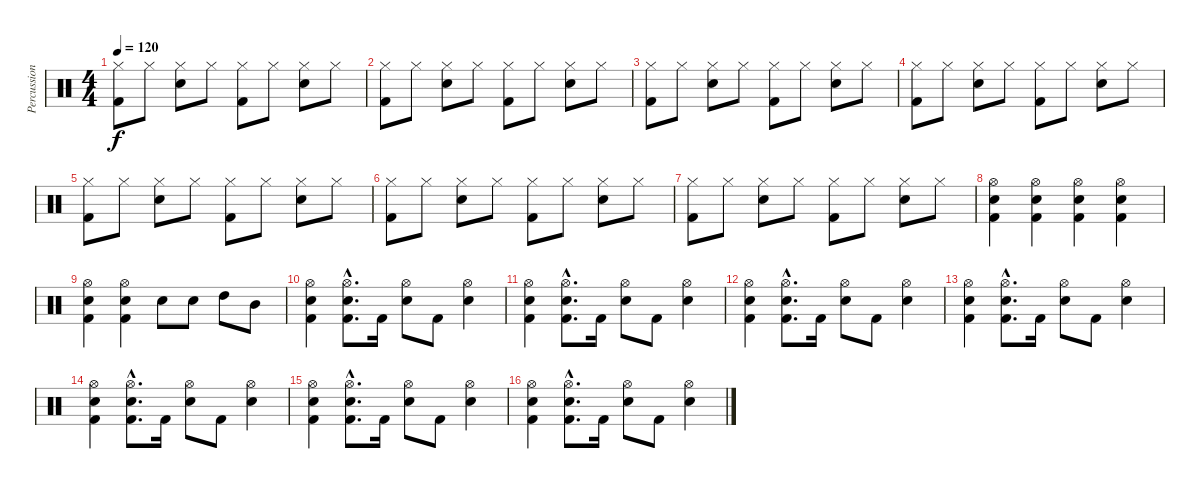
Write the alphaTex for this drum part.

\track ("Percussions" "Percussion") {instrument percussion}
\staff {score}
\articulation defaults
\ts (4 4)
\tempo 120
\clef neutral
\ks c
("Hi-Hat (closed)" "Kick (hit) 2").8{dy f} "Hi-Hat (closed)".8 ("Hi-Hat (closed)" "Snare (hit) 2").8 "Hi-Hat (closed)".8 ("Hi-Hat (closed)" "Kick (hit) 2").8 "Hi-Hat (closed)".8 ("Hi-Hat (closed)" "Snare (hit) 2").8 "Hi-Hat (closed)".8 |
("Hi-Hat (closed)" "Kick (hit) 2").8 "Hi-Hat (closed)".8 ("Hi-Hat (closed)" "Snare (hit) 2").8 "Hi-Hat (closed)".8 ("Hi-Hat (closed)" "Kick (hit) 2").8 "Hi-Hat (closed)".8 ("Hi-Hat (closed)" "Snare (hit) 2").8 "Hi-Hat (closed)".8 |
("Hi-Hat (closed)" "Kick (hit) 2").8 "Hi-Hat (closed)".8 ("Hi-Hat (closed)" "Snare (hit) 2").8 "Hi-Hat (closed)".8 ("Hi-Hat (closed)" "Kick (hit) 2").8 "Hi-Hat (closed)".8 ("Hi-Hat (closed)" "Snare (hit) 2").8 "Hi-Hat (closed)".8 |
("Hi-Hat (closed)" "Kick (hit) 2").8 "Hi-Hat (closed)".8 ("Hi-Hat (closed)" "Snare (hit) 2").8 "Hi-Hat (closed)".8 ("Hi-Hat (closed)" "Kick (hit) 2").8 "Hi-Hat (closed)".8 ("Hi-Hat (closed)" "Snare (hit) 2").8 "Hi-Hat (closed)".8 |
("Hi-Hat (closed)" "Kick (hit) 2").8 "Hi-Hat (closed)".8 ("Hi-Hat (closed)" "Snare (hit) 2").8 "Hi-Hat (closed)".8 ("Hi-Hat (closed)" "Kick (hit) 2").8 "Hi-Hat (closed)".8 ("Hi-Hat (closed)" "Snare (hit) 2").8 "Hi-Hat (closed)".8 |
("Hi-Hat (closed)" "Kick (hit) 2").8 "Hi-Hat (closed)".8 ("Hi-Hat (closed)" "Snare (hit) 2").8 "Hi-Hat (closed)".8 ("Hi-Hat (closed)" "Kick (hit) 2").8 "Hi-Hat (closed)".8 ("Hi-Hat (closed)" "Snare (hit) 2").8 "Hi-Hat (closed)".8 |
("Hi-Hat (closed)" "Kick (hit) 2").8 "Hi-Hat (closed)".8 ("Hi-Hat (closed)" "Snare (hit) 2").8 "Hi-Hat (closed)".8 ("Hi-Hat (closed)" "Kick (hit) 2").8 "Hi-Hat (closed)".8 ("Hi-Hat (closed)" "Snare (hit) 2").8 "Hi-Hat (closed)".8 |
("Hi-Hat (open)" "Snare (hit) 2" "Kick (hit) 2").4 ("Hi-Hat (open)" "Snare (hit) 2" "Kick (hit) 2").4 ("Hi-Hat (open)" "Snare (hit) 2" "Kick (hit) 2").4 ("Hi-Hat (open)" "Snare (hit) 2" "Kick (hit) 2").4 |
("Hi-Hat (open)" "Snare (hit) 2" "Kick (hit) 2").4 ("Hi-Hat (open)" "Snare (hit) 2" "Kick (hit) 2").4 "Snare (hit) 2".8 "Snare (hit) 2".8 "High Tom (hit)".8 "Mid Tom (hit)".8 |
("Hi-Hat (open)" "Snare (hit) 2" "Kick (hit) 2").4 ("Hi-Hat (open)"{hac} "Snare (hit) 2"{hac} "Kick (hit) 2"{hac}).8{d} "Kick (hit) 2".16 ("Hi-Hat (open)" "Snare (hit) 2").8 "Kick (hit) 2".8 ("Hi-Hat (open)" "Snare (hit) 2").4 |
("Hi-Hat (open)" "Snare (hit) 2" "Kick (hit) 2").4 ("Hi-Hat (open)"{hac} "Snare (hit) 2"{hac} "Kick (hit) 2"{hac}).8{d} "Kick (hit) 2".16 ("Hi-Hat (open)" "Snare (hit) 2").8 "Kick (hit) 2".8 ("Hi-Hat (open)" "Snare (hit) 2").4 |
("Hi-Hat (open)" "Snare (hit) 2" "Kick (hit) 2").4 ("Hi-Hat (open)"{hac} "Snare (hit) 2"{hac} "Kick (hit) 2"{hac}).8{d} "Kick (hit) 2".16 ("Hi-Hat (open)" "Snare (hit) 2").8 "Kick (hit) 2".8 ("Hi-Hat (open)" "Snare (hit) 2").4 |
("Hi-Hat (open)" "Snare (hit) 2" "Kick (hit) 2").4 ("Hi-Hat (open)"{hac} "Snare (hit) 2"{hac} "Kick (hit) 2"{hac}).8{d} "Kick (hit) 2".16 ("Hi-Hat (open)" "Snare (hit) 2").8 "Kick (hit) 2".8 ("Hi-Hat (open)" "Snare (hit) 2").4 |
("Hi-Hat (open)" "Snare (hit) 2" "Kick (hit) 2").4 ("Hi-Hat (open)"{hac} "Snare (hit) 2"{hac} "Kick (hit) 2"{hac}).8{d} "Kick (hit) 2".16 ("Hi-Hat (open)" "Snare (hit) 2").8 "Kick (hit) 2".8 ("Hi-Hat (open)" "Snare (hit) 2").4 |
("Hi-Hat (open)" "Snare (hit) 2" "Kick (hit) 2").4 ("Hi-Hat (open)"{hac} "Snare (hit) 2"{hac} "Kick (hit) 2"{hac}).8{d} "Kick (hit) 2".16 ("Hi-Hat (open)" "Snare (hit) 2").8 "Kick (hit) 2".8 ("Hi-Hat (open)" "Snare (hit) 2").4 |
("Hi-Hat (open)" "Snare (hit) 2" "Kick (hit) 2").4 ("Hi-Hat (open)"{hac} "Snare (hit) 2"{hac} "Kick (hit) 2"{hac}).8{d} "Kick (hit) 2".16 ("Hi-Hat (open)" "Snare (hit) 2").8 "Kick (hit) 2".8 ("Hi-Hat (open)" "Snare (hit) 2").4
